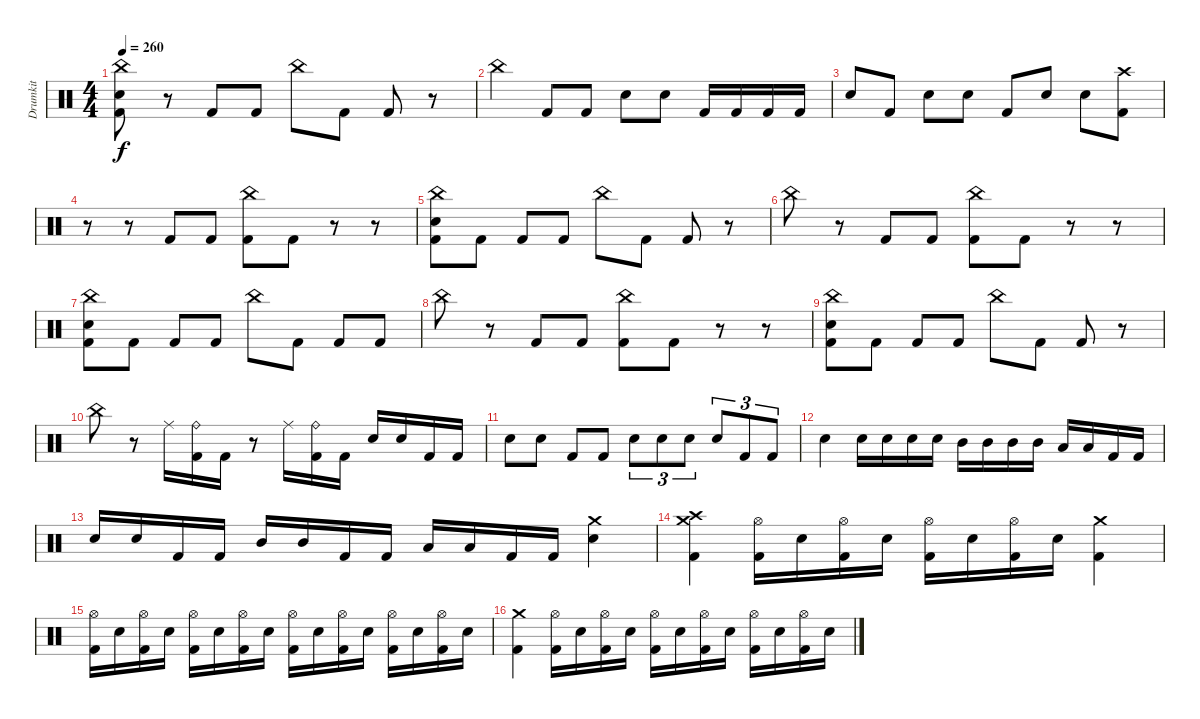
\track ("Drumkit" "Drumkit") {instrument percussion}
\staff {score}
\articulation defaults
\ts (4 4)
\tempo 260
\clef neutral
\ks c
("China (hit)" "Electric Snare (hit)" "Kick (hit) 2").8{dy f} r.8 "Kick (hit) 2".8 "Kick (hit) 2".8 "China (hit)".8 "Kick (hit) 2".8 "Kick (hit) 2".8 r.8 |
"China (hit)".4 "Kick (hit) 2".8 "Kick (hit) 2".8 "Electric Snare (hit)".8 "Electric Snare (hit)".8 "Kick (hit) 2".16 "Kick (hit) 2".16 "Kick (hit) 2".16 "Kick (hit) 2".16 |
"Electric Snare (hit)".8 "Kick (hit) 2".8 "Electric Snare (hit)".8 "Electric Snare (hit)".8 "Kick (hit) 2".8 "Electric Snare (hit)".8 "Electric Snare (hit)".8 ("Crash high (hit)" "Kick (hit) 2").8 |
r.8 r.8 "Kick (hit) 2".8 "Kick (hit) 2".8 ("China (hit)" "Kick (hit) 2").8 "Kick (hit) 2".8 r.8 r.8 |
("China (hit)" "Electric Snare (hit)" "Kick (hit) 2").8 "Kick (hit) 2".8 "Kick (hit) 2".8 "Kick (hit) 2".8 "China (hit)".8 "Kick (hit) 2".8 "Kick (hit) 2".8 r.8 |
"China (hit)".8 r.8 "Kick (hit) 2".8 "Kick (hit) 2".8 ("China (hit)" "Kick (hit) 2").8 "Kick (hit) 2".8 r.8 r.8 |
("China (hit)" "Electric Snare (hit)" "Kick (hit) 2").8 "Kick (hit) 2".8 "Kick (hit) 2".8 "Kick (hit) 2".8 "China (hit)".8 "Kick (hit) 2".8 "Kick (hit) 2".8 "Kick (hit) 2".8 |
"China (hit)".8 r.8 "Kick (hit) 2".8 "Kick (hit) 2".8 ("China (hit)" "Kick (hit) 2").8 "Kick (hit) 2".8 r.8 r.8 |
("China (hit)" "Electric Snare (hit)" "Kick (hit) 2").8 "Kick (hit) 2".8 "Kick (hit) 2".8 "Kick (hit) 2".8 "China (hit)".8 "Kick (hit) 2".8 "Kick (hit) 2".8 r.8 |
"China (hit)".8 r.8 "Ride (middle)".16 ("Ride (bell)" "Kick (hit) 2").16 "Kick (hit) 2".16 r.8 "Ride (middle)".16 ("Ride (bell)" "Kick (hit) 2").16 "Kick (hit) 2".16 "Electric Snare (hit)".16 "Electric Snare (hit)".16 "Kick (hit) 2".16 "Kick (hit) 2".16 |
"Electric Snare (hit)".8 "Electric Snare (hit)".8 "Kick (hit) 2".8 "Kick (hit) 2".8 "Electric Snare (hit)".8{tu (3 2)} "Electric Snare (hit)".8{tu (3 2)} "Electric Snare (hit)".8{tu (3 2)} "Electric Snare (hit)".8{tu (3 2)} "Kick (hit) 2".8{tu (3 2)} "Kick (hit) 2".8{tu (3 2)} |
"Electric Snare (hit)".4 "Electric Snare (hit)".16 "Electric Snare (hit)".16 "Electric Snare (hit)".16 "Electric Snare (hit)".16 "Mid Tom (hit)".16 "Mid Tom (hit)".16 "Mid Tom (hit)".16 "Mid Tom (hit)".16 "Low Tom (hit)".16 "Low Tom (hit)".16 "Kick (hit) 2".16 "Kick (hit) 2".16 |
"Electric Snare (hit)".16 "Electric Snare (hit)".16 "Kick (hit) 2".16 "Kick (hit) 2".16 "Mid Tom (hit)".16 "Mid Tom (hit)".16 "Kick (hit) 2".16 "Kick (hit) 2".16 "Low Tom (hit)".16 "Low Tom (hit)".16 "Kick (hit) 2".16 "Kick (hit) 2".16 ("Crash medium (hit)" "Electric Snare (hit)").4 |
("Crash medium (hit)" "Crash high (hit)" "Kick (hit) 2").4 ("Hi-Hat (open)" "Kick (hit) 2").16 "Electric Snare (hit)".16 ("Hi-Hat (open)" "Kick (hit) 2").16 "Electric Snare (hit)".16 ("Hi-Hat (open)" "Kick (hit) 2").16 "Electric Snare (hit)".16 ("Hi-Hat (open)" "Kick (hit) 2").16 "Electric Snare (hit)".16 ("Crash medium (hit)" "Kick (hit) 2").4 |
("Hi-Hat (open)" "Kick (hit) 2").16 "Electric Snare (hit)".16 ("Hi-Hat (open)" "Kick (hit) 2").16 "Electric Snare (hit)".16 ("Hi-Hat (open)" "Kick (hit) 2").16 "Electric Snare (hit)".16 ("Hi-Hat (open)" "Kick (hit) 2").16 "Electric Snare (hit)".16 ("Hi-Hat (open)" "Kick (hit) 2").16 "Electric Snare (hit)".16 ("Hi-Hat (open)" "Kick (hit) 2").16 "Electric Snare (hit)".16 ("Hi-Hat (open)" "Kick (hit) 2").16 "Electric Snare (hit)".16 ("Hi-Hat (open)" "Kick (hit) 2").16 "Electric Snare (hit)".16 |
("Crash medium (hit)" "Kick (hit) 2").4 ("Hi-Hat (open)" "Kick (hit) 2").16 "Electric Snare (hit)".16 ("Hi-Hat (open)" "Kick (hit) 2").16 "Electric Snare (hit)".16 ("Hi-Hat (open)" "Kick (hit) 2").16 "Electric Snare (hit)".16 ("Hi-Hat (open)" "Kick (hit) 2").16 "Electric Snare (hit)".16 ("Hi-Hat (open)" "Kick (hit) 2").16 "Electric Snare (hit)".16 ("Hi-Hat (open)" "Kick (hit) 2").16 "Electric Snare (hit)".16
